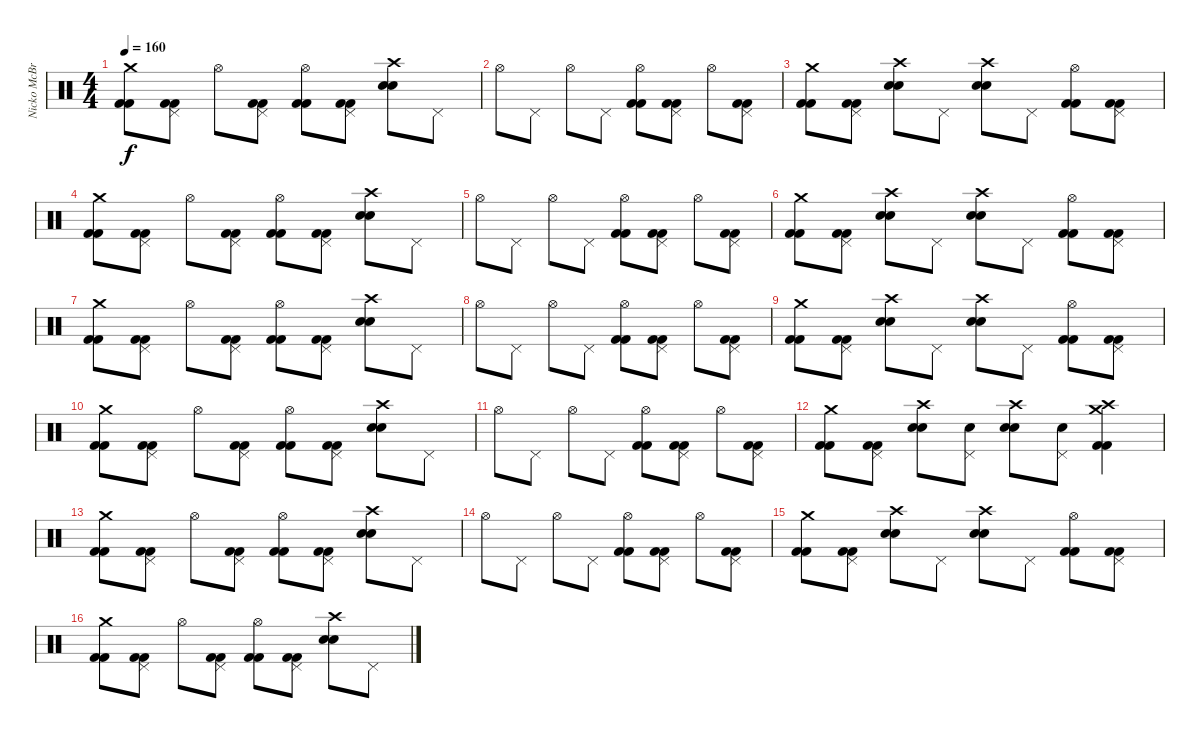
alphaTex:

\track ("Nicko McBrain" "Nicko McBr") {instrument percussion}
\staff {score}
\articulation defaults
\ts (4 4)
\tempo 160
\clef neutral
\ks c
("Crash medium (hit)" "Kick (hit) 2" "Kick (hit) 2").8{dy f} ("Pedal Hi-Hat (hit)" "Kick (hit) 2" "Kick (hit) 2").8 "Hi-Hat (open)".8 ("Pedal Hi-Hat (hit)" "Kick (hit) 2" "Kick (hit) 2").8 ("Hi-Hat (open)" "Kick (hit) 2" "Kick (hit) 2").8 ("Pedal Hi-Hat (hit)" "Kick (hit) 2" "Kick (hit) 2").8 ("Crash high (hit)" "Snare (hit) 2" "Snare (hit) 2").8 "Pedal Hi-Hat (hit)".8 |
"Hi-Hat (open)".8 "Pedal Hi-Hat (hit)".8 "Hi-Hat (open)".8 "Pedal Hi-Hat (hit)".8 ("Hi-Hat (open)" "Kick (hit) 2" "Kick (hit) 2").8 ("Pedal Hi-Hat (hit)" "Kick (hit) 2" "Kick (hit) 2").8 "Hi-Hat (open)".8 ("Pedal Hi-Hat (hit)" "Kick (hit) 2" "Kick (hit) 2").8 |
("Crash medium (hit)" "Kick (hit) 2" "Kick (hit) 2").8 ("Pedal Hi-Hat (hit)" "Kick (hit) 2" "Kick (hit) 2").8 ("Crash high (hit)" "Snare (hit) 2" "Snare (hit) 2").8 "Pedal Hi-Hat (hit)".8 ("Crash high (hit)" "Snare (hit) 2" "Snare (hit) 2").8 "Pedal Hi-Hat (hit)".8 ("Hi-Hat (open)" "Kick (hit) 2" "Kick (hit) 2").8 ("Pedal Hi-Hat (hit)" "Kick (hit) 2" "Kick (hit) 2").8 |
("Crash medium (hit)" "Kick (hit) 2" "Kick (hit) 2").8 ("Pedal Hi-Hat (hit)" "Kick (hit) 2" "Kick (hit) 2").8 "Hi-Hat (open)".8 ("Pedal Hi-Hat (hit)" "Kick (hit) 2" "Kick (hit) 2").8 ("Hi-Hat (open)" "Kick (hit) 2" "Kick (hit) 2").8 ("Pedal Hi-Hat (hit)" "Kick (hit) 2" "Kick (hit) 2").8 ("Crash high (hit)" "Snare (hit) 2" "Snare (hit) 2").8 "Pedal Hi-Hat (hit)".8 |
"Hi-Hat (open)".8 "Pedal Hi-Hat (hit)".8 "Hi-Hat (open)".8 "Pedal Hi-Hat (hit)".8 ("Hi-Hat (open)" "Kick (hit) 2" "Kick (hit) 2").8 ("Pedal Hi-Hat (hit)" "Kick (hit) 2" "Kick (hit) 2").8 "Hi-Hat (open)".8 ("Pedal Hi-Hat (hit)" "Kick (hit) 2" "Kick (hit) 2").8 |
("Crash medium (hit)" "Kick (hit) 2" "Kick (hit) 2").8 ("Pedal Hi-Hat (hit)" "Kick (hit) 2" "Kick (hit) 2").8 ("Crash high (hit)" "Snare (hit) 2" "Snare (hit) 2").8 "Pedal Hi-Hat (hit)".8 ("Crash high (hit)" "Snare (hit) 2" "Snare (hit) 2").8 "Pedal Hi-Hat (hit)".8 ("Hi-Hat (open)" "Kick (hit) 2" "Kick (hit) 2").8 ("Pedal Hi-Hat (hit)" "Kick (hit) 2" "Kick (hit) 2").8 |
("Crash medium (hit)" "Kick (hit) 2" "Kick (hit) 2").8 ("Pedal Hi-Hat (hit)" "Kick (hit) 2" "Kick (hit) 2").8 "Hi-Hat (open)".8 ("Pedal Hi-Hat (hit)" "Kick (hit) 2" "Kick (hit) 2").8 ("Hi-Hat (open)" "Kick (hit) 2" "Kick (hit) 2").8 ("Pedal Hi-Hat (hit)" "Kick (hit) 2" "Kick (hit) 2").8 ("Crash high (hit)" "Snare (hit) 2" "Snare (hit) 2").8 "Pedal Hi-Hat (hit)".8 |
"Hi-Hat (open)".8 "Pedal Hi-Hat (hit)".8 "Hi-Hat (open)".8 "Pedal Hi-Hat (hit)".8 ("Hi-Hat (open)" "Kick (hit) 2" "Kick (hit) 2").8 ("Pedal Hi-Hat (hit)" "Kick (hit) 2" "Kick (hit) 2").8 "Hi-Hat (open)".8 ("Pedal Hi-Hat (hit)" "Kick (hit) 2" "Kick (hit) 2").8 |
("Crash medium (hit)" "Kick (hit) 2" "Kick (hit) 2").8 ("Pedal Hi-Hat (hit)" "Kick (hit) 2" "Kick (hit) 2").8 ("Crash high (hit)" "Snare (hit) 2" "Snare (hit) 2").8 "Pedal Hi-Hat (hit)".8 ("Crash high (hit)" "Snare (hit) 2" "Snare (hit) 2").8 "Pedal Hi-Hat (hit)".8 ("Hi-Hat (open)" "Kick (hit) 2" "Kick (hit) 2").8 ("Pedal Hi-Hat (hit)" "Kick (hit) 2" "Kick (hit) 2").8 |
("Crash medium (hit)" "Kick (hit) 2" "Kick (hit) 2").8 ("Pedal Hi-Hat (hit)" "Kick (hit) 2" "Kick (hit) 2").8 "Hi-Hat (open)".8 ("Pedal Hi-Hat (hit)" "Kick (hit) 2" "Kick (hit) 2").8 ("Hi-Hat (open)" "Kick (hit) 2" "Kick (hit) 2").8 ("Pedal Hi-Hat (hit)" "Kick (hit) 2" "Kick (hit) 2").8 ("Crash high (hit)" "Snare (hit) 2" "Snare (hit) 2").8 "Pedal Hi-Hat (hit)".8 |
"Hi-Hat (open)".8 "Pedal Hi-Hat (hit)".8 "Hi-Hat (open)".8 "Pedal Hi-Hat (hit)".8 ("Hi-Hat (open)" "Kick (hit) 2" "Kick (hit) 2").8 ("Pedal Hi-Hat (hit)" "Kick (hit) 2" "Kick (hit) 2").8 "Hi-Hat (open)".8 ("Pedal Hi-Hat (hit)" "Kick (hit) 2" "Kick (hit) 2").8 |
("Crash medium (hit)" "Kick (hit) 2" "Kick (hit) 2").8 ("Pedal Hi-Hat (hit)" "Kick (hit) 2" "Kick (hit) 2").8 ("Crash high (hit)" "Snare (hit) 2" "Snare (hit) 2").8 ("Pedal Hi-Hat (hit)" "Snare (hit) 2").8 ("Crash high (hit)" "Snare (hit) 2" "Snare (hit) 2").8 ("Pedal Hi-Hat (hit)" "Snare (hit) 2").8 ("Crash high (hit)" "Crash medium (hit)" "Kick (hit) 2" "Kick (hit) 2").4 |
("Crash medium (hit)" "Kick (hit) 2" "Kick (hit) 2").8 ("Pedal Hi-Hat (hit)" "Kick (hit) 2" "Kick (hit) 2").8 "Hi-Hat (open)".8 ("Pedal Hi-Hat (hit)" "Kick (hit) 2" "Kick (hit) 2").8 ("Hi-Hat (open)" "Kick (hit) 2" "Kick (hit) 2").8 ("Pedal Hi-Hat (hit)" "Kick (hit) 2" "Kick (hit) 2").8 ("Crash high (hit)" "Snare (hit) 2" "Snare (hit) 2").8 "Pedal Hi-Hat (hit)".8 |
"Hi-Hat (open)".8 "Pedal Hi-Hat (hit)".8 "Hi-Hat (open)".8 "Pedal Hi-Hat (hit)".8 ("Hi-Hat (open)" "Kick (hit) 2" "Kick (hit) 2").8 ("Pedal Hi-Hat (hit)" "Kick (hit) 2" "Kick (hit) 2").8 "Hi-Hat (open)".8 ("Pedal Hi-Hat (hit)" "Kick (hit) 2" "Kick (hit) 2").8 |
("Crash medium (hit)" "Kick (hit) 2" "Kick (hit) 2").8 ("Pedal Hi-Hat (hit)" "Kick (hit) 2" "Kick (hit) 2").8 ("Crash high (hit)" "Snare (hit) 2" "Snare (hit) 2").8 "Pedal Hi-Hat (hit)".8 ("Crash high (hit)" "Snare (hit) 2" "Snare (hit) 2").8 "Pedal Hi-Hat (hit)".8 ("Hi-Hat (open)" "Kick (hit) 2" "Kick (hit) 2").8 ("Pedal Hi-Hat (hit)" "Kick (hit) 2" "Kick (hit) 2").8 |
("Crash medium (hit)" "Kick (hit) 2" "Kick (hit) 2").8 ("Pedal Hi-Hat (hit)" "Kick (hit) 2" "Kick (hit) 2").8 "Hi-Hat (open)".8 ("Pedal Hi-Hat (hit)" "Kick (hit) 2" "Kick (hit) 2").8 ("Hi-Hat (open)" "Kick (hit) 2" "Kick (hit) 2").8 ("Pedal Hi-Hat (hit)" "Kick (hit) 2" "Kick (hit) 2").8 ("Crash high (hit)" "Snare (hit) 2" "Snare (hit) 2").8 "Pedal Hi-Hat (hit)".8
